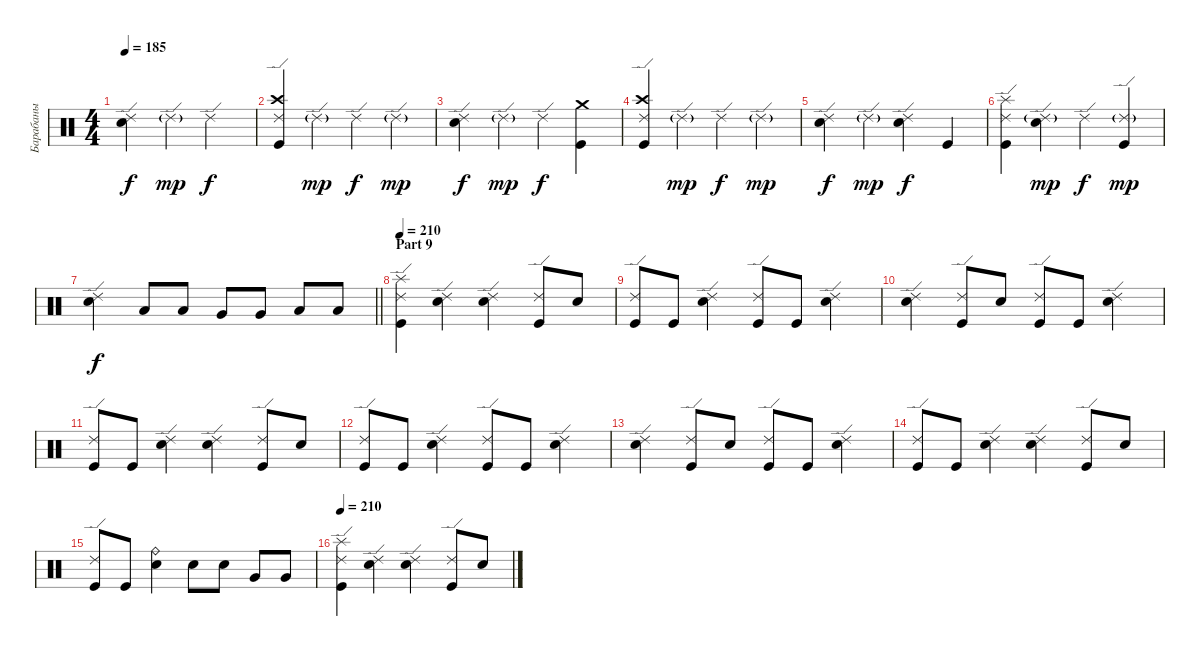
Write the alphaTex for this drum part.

\track ("Барабаны" "Барабаны") {instrument percussion}
\staff {score}
\articulation defaults
\ts (4 4)
\tempo 185
\clef neutral
\ks c
("Ride (edge) 2" "Electric Snare (hit)").4{dy f} "Ride (edge) 2"{g}.4{dy mp} "Ride (edge) 2".2{dy f} |
("Ride (edge) 2" "Crash high (hit)" "Kick (hit)").4 "Ride (edge) 2"{g}.4{dy mp} "Ride (edge) 2".4{dy f} "Ride (edge) 2"{g}.4{dy mp} |
("Ride (edge) 2" "Electric Snare (hit)").4{dy f} "Ride (edge) 2"{g}.4{dy mp} "Ride (edge) 2".4{dy f} ("Crash medium (hit)" "Kick (hit)").4 |
("Ride (edge) 2" "Crash high (hit)" "Kick (hit)").4 "Ride (edge) 2"{g}.4{dy mp} "Ride (edge) 2".4{dy f} "Ride (edge) 2"{g}.4{dy mp} |
("Ride (edge) 2" "Electric Snare (hit)").4{dy f} "Ride (edge) 2"{g}.4{dy mp} ("Ride (edge) 2" "Electric Snare (hit)").4{dy f} "Kick (hit)".4 |
("Ride (edge) 2" "Splash (hit)" "Kick (hit)").4 ("Ride (edge) 2"{g} "Electric Snare (hit)").4{dy mp} "Ride (edge) 2".4{dy f} ("Ride (edge) 2"{g} "Kick (hit)").4{dy mp} |
\barLineRight lightlight
("Ride (edge) 2" "Electric Snare (hit)").4{dy f} "Low Tom (hit)".8 "Low Tom (hit)".8 "Very Low Tom (hit)".8 "Very Low Tom (hit)".8 "Low Floor Tom (hit)".8 "Low Floor Tom (hit)".8 |
\section ("" "Part 9")
\tempo 210
("Ride (edge) 2" "Splash (hit)" "Kick (hit)").4 ("Ride (edge) 2" "Electric Snare (hit)").4 ("Ride (edge) 2" "Electric Snare (hit)").4 ("Ride (edge) 2" "Kick (hit)").8 "Electric Snare (hit)".8 |
("Ride (edge) 2" "Kick (hit)").8 "Kick (hit)".8 ("Ride (edge) 2" "Electric Snare (hit)").4 ("Ride (edge) 2" "Kick (hit)").8 "Kick (hit)".8 ("Ride (edge) 2" "Electric Snare (hit)").4 |
("Ride (edge) 2" "Electric Snare (hit)").4 ("Ride (edge) 2" "Kick (hit)").8 "Electric Snare (hit)".8 ("Ride (edge) 2" "Kick (hit)").8 "Kick (hit)".8 ("Ride (edge) 2" "Electric Snare (hit)").4 |
("Ride (edge) 2" "Kick (hit)").8 "Kick (hit)".8 ("Ride (edge) 2" "Electric Snare (hit)").4 ("Ride (edge) 2" "Electric Snare (hit)").4 ("Ride (edge) 2" "Kick (hit)").8 "Electric Snare (hit)".8 |
("Ride (edge) 2" "Kick (hit)").8 "Kick (hit)".8 ("Ride (edge) 2" "Electric Snare (hit)").4 ("Ride (edge) 2" "Kick (hit)").8 "Kick (hit)".8 ("Ride (edge) 2" "Electric Snare (hit)").4 |
("Ride (edge) 2" "Electric Snare (hit)").4 ("Ride (edge) 2" "Kick (hit)").8 "Electric Snare (hit)".8 ("Ride (edge) 2" "Kick (hit)").8 "Kick (hit)".8 ("Ride (edge) 2" "Electric Snare (hit)").4 |
("Ride (edge) 2" "Kick (hit)").8 "Kick (hit)".8 ("Ride (edge) 2" "Electric Snare (hit)").4 ("Ride (edge) 2" "Electric Snare (hit)").4 ("Ride (edge) 2" "Kick (hit)").8 "Electric Snare (hit)".8 |
("Ride (edge) 2" "Kick (hit)").8 "Kick (hit)".8 ("Ride (bell)" "Electric Snare (hit)").4 "Electric Snare (hit)".8 "Electric Snare (hit)".8 "Very Low Tom (hit)".8 "Very Low Tom (hit)".8 |
\tempo 210
("Ride (edge) 2" "Splash (hit)" "Kick (hit)").4 ("Ride (edge) 2" "Electric Snare (hit)").4 ("Ride (edge) 2" "Electric Snare (hit)").4 ("Ride (edge) 2" "Kick (hit)").8 "Electric Snare (hit)".8
